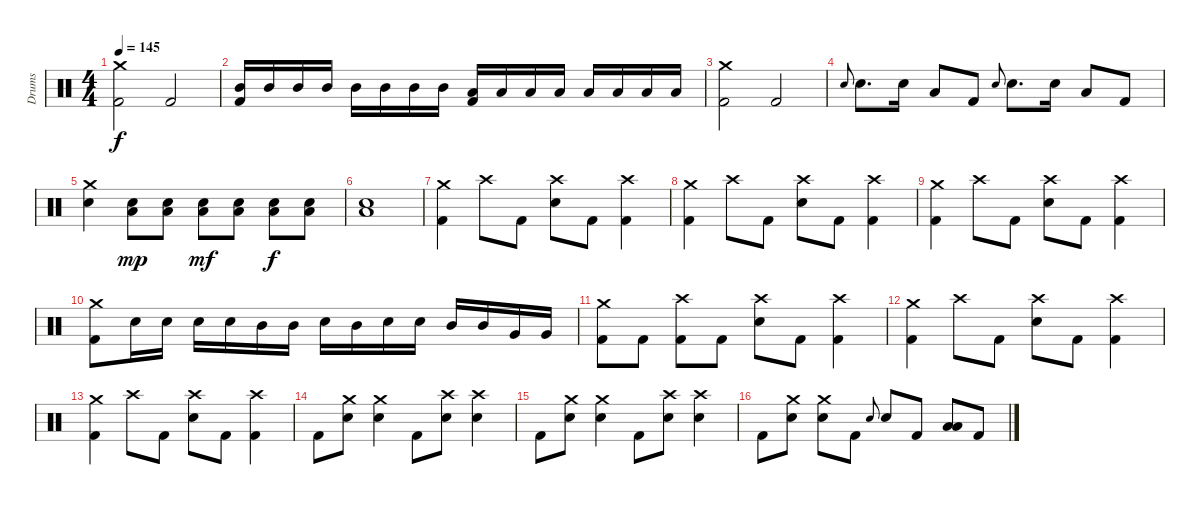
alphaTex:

\track ("Drums" "Drums") {instrument percussion}
\staff {score}
\articulation defaults
\ts (4 4)
\tempo 145
\clef neutral
\ks c
("Kick (hit) 2" "Crash medium (hit)").2{dy f} "Kick (hit) 2".2 |
("Kick (hit) 2" "Mid Tom (hit)").16 "Mid Tom (hit)".16 "Mid Tom (hit)".16 "Mid Tom (hit)".16 "Mid Tom (hit)".16 "Mid Tom (hit)".16 "Mid Tom (hit)".16 "Mid Tom (hit)".16 ("Kick (hit) 2" "Low Tom (hit)").16 "Low Tom (hit)".16 "Low Tom (hit)".16 "Low Tom (hit)".16 "Low Tom (hit)".16 "Low Tom (hit)".16 "Low Tom (hit)".16 "Low Tom (hit)".16 |
("Kick (hit) 2" "Crash medium (hit)").2 "Kick (hit) 2".2 |
"Electric Snare (hit)".8{gr onbeat} "Electric Snare (hit)".8{d} "Electric Snare (hit)".16 "Low Floor Tom (hit)".8 "Kick (hit) 2".8 "Electric Snare (hit)".8{gr onbeat} "Electric Snare (hit)".8{d} "Electric Snare (hit)".16 "Low Floor Tom (hit)".8 "Kick (hit) 2".8 |
("Crash medium (hit)" "Electric Snare (hit)").4 ("Electric Snare (hit)" "Low Floor Tom (hit)").8{dy mp} ("Electric Snare (hit)" "Low Floor Tom (hit)").8 ("Electric Snare (hit)" "Low Floor Tom (hit)").8{dy mf} ("Electric Snare (hit)" "Low Floor Tom (hit)").8 ("Electric Snare (hit)" "Low Floor Tom (hit)").8{dy f} ("Electric Snare (hit)" "Low Floor Tom (hit)").8 |
("Electric Snare (hit)" "Low Floor Tom (hit)").1 |
("Crash medium (hit)" "Kick (hit) 2").4 "Crash high (hit)".8 "Kick (hit) 2".8 ("Crash high (hit)" "Electric Snare (hit)").8 "Kick (hit) 2".8 ("Kick (hit) 2" "Crash high (hit)").4 |
("Crash medium (hit)" "Kick (hit) 2").4 "Crash high (hit)".8 "Kick (hit) 2".8 ("Crash high (hit)" "Electric Snare (hit)").8 "Kick (hit) 2".8 ("Kick (hit) 2" "Crash high (hit)").4 |
("Crash medium (hit)" "Kick (hit) 2").4 "Crash high (hit)".8 "Kick (hit) 2".8 ("Crash high (hit)" "Electric Snare (hit)").8 "Kick (hit) 2".8 ("Kick (hit) 2" "Crash high (hit)").4 |
("Crash medium (hit)" "Kick (hit) 2").8 "Electric Snare (hit)".16 "Electric Snare (hit)".16 "Electric Snare (hit)".16 "Electric Snare (hit)".16 "Mid Tom (hit)".16 "Mid Tom (hit)".16 "Electric Snare (hit)".16 "Mid Tom (hit)".16 "Electric Snare (hit)".16 "Electric Snare (hit)".16 "Mid Tom (hit)".16 "Mid Tom (hit)".16 "Very Low Tom (hit)".16 "Very Low Tom (hit)".16 |
("Crash medium (hit)" "Kick (hit) 2").8 "Kick (hit) 2".8 ("Crash high (hit)" "Kick (hit) 2").8 "Kick (hit) 2".8 ("Crash high (hit)" "Electric Snare (hit)").8 "Kick (hit) 2".8 ("Crash high (hit)" "Kick (hit) 2").4 |
("Crash medium (hit)" "Kick (hit) 2").4 "Crash high (hit)".8 "Kick (hit) 2".8 ("Crash high (hit)" "Electric Snare (hit)").8 "Kick (hit) 2".8 ("Kick (hit) 2" "Crash high (hit)").4 |
("Crash medium (hit)" "Kick (hit) 2").4 "Crash high (hit)".8 "Kick (hit) 2".8 ("Crash high (hit)" "Electric Snare (hit)").8 "Kick (hit) 2".8 ("Kick (hit) 2" "Crash high (hit)").4 |
"Kick (hit) 2".8 ("Crash medium (hit)" "Electric Snare (hit)").8 ("Crash medium (hit)" "Electric Snare (hit)").4 "Kick (hit) 2".8 ("Crash high (hit)" "Electric Snare (hit)").8 ("Crash high (hit)" "Electric Snare (hit)").4 |
"Kick (hit) 2".8 ("Crash medium (hit)" "Electric Snare (hit)").8 ("Crash medium (hit)" "Electric Snare (hit)").4 "Kick (hit) 2".8 ("Crash high (hit)" "Electric Snare (hit)").8 ("Crash high (hit)" "Electric Snare (hit)").4 |
"Kick (hit) 2".8 ("Crash medium (hit)" "Electric Snare (hit)").8 ("Crash medium (hit)" "Electric Snare (hit)").8 "Kick (hit) 2".8 "Electric Snare (hit)".8{gr onbeat} "Electric Snare (hit)".8 "Kick (hit) 2".8 ("Low Tom (hit)" "Low Floor Tom (hit)").8 "Kick (hit) 2".8
